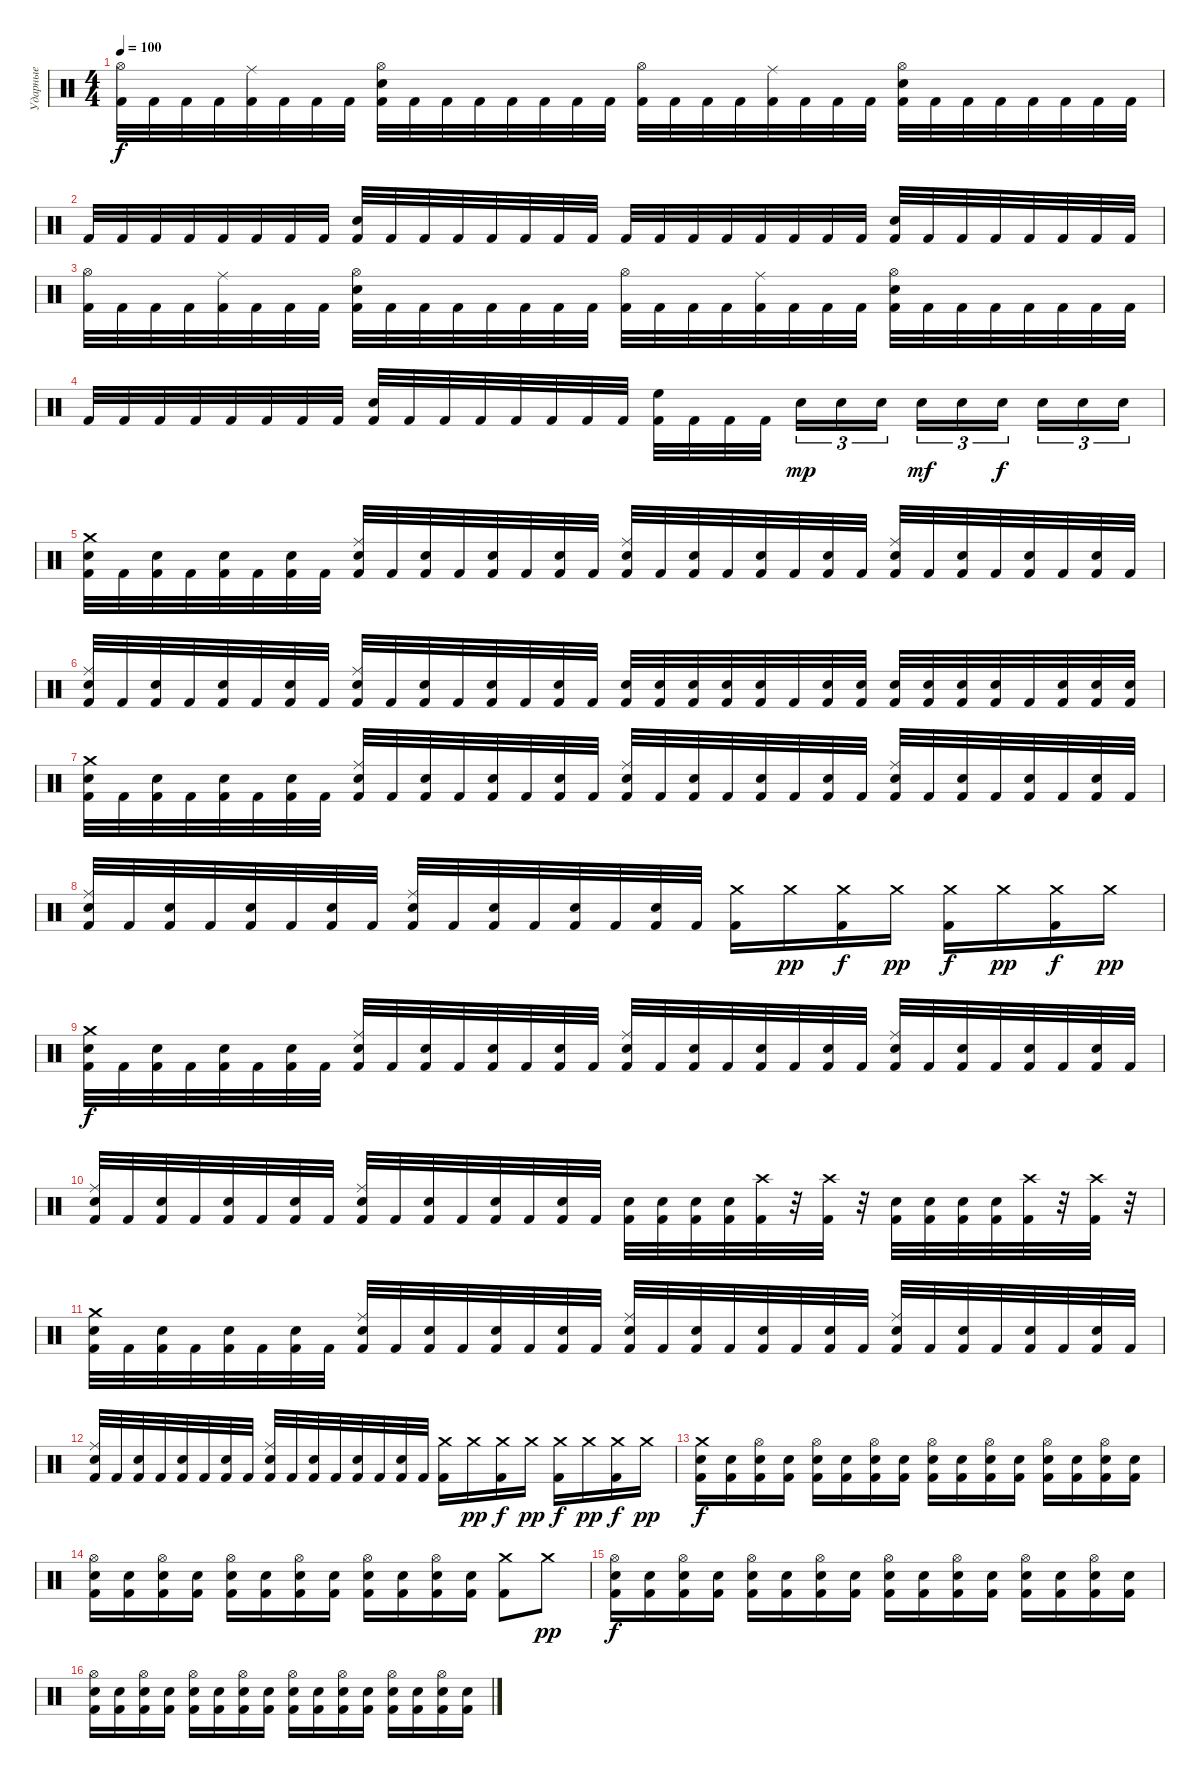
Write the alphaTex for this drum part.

\track ("Ударные" "Ударные") {instrument percussion}
\staff {score}
\articulation defaults
\ts (4 4)
\tempo 100
\clef neutral
\ks c
("Hi-Hat (open)" "Kick (hit) 2").32{dy f} "Kick (hit) 2".32 "Kick (hit) 2".32 "Kick (hit) 2".32 ("Ride (middle)" "Kick (hit) 2").32 "Kick (hit) 2".32 "Kick (hit) 2".32 "Kick (hit) 2".32 ("Hi-Hat (open)" "Electric Snare (hit)" "Kick (hit) 2").32 "Kick (hit) 2".32 "Kick (hit) 2".32 "Kick (hit) 2".32 "Kick (hit) 2".32 "Kick (hit) 2".32 "Kick (hit) 2".32 "Kick (hit) 2".32 ("Hi-Hat (open)" "Kick (hit) 2").32 "Kick (hit) 2".32 "Kick (hit) 2".32 "Kick (hit) 2".32 ("Ride (middle)" "Kick (hit) 2").32 "Kick (hit) 2".32 "Kick (hit) 2".32 "Kick (hit) 2".32 ("Hi-Hat (open)" "Electric Snare (hit)" "Kick (hit) 2").32 "Kick (hit) 2".32 "Kick (hit) 2".32 "Kick (hit) 2".32 "Kick (hit) 2".32 "Kick (hit) 2".32 "Kick (hit) 2".32 "Kick (hit) 2".32 |
"Kick (hit) 2".32 "Kick (hit) 2".32 "Kick (hit) 2".32 "Kick (hit) 2".32 "Kick (hit) 2".32 "Kick (hit) 2".32 "Kick (hit) 2".32 "Kick (hit) 2".32 ("Electric Snare (hit)" "Kick (hit) 2").32 "Kick (hit) 2".32 "Kick (hit) 2".32 "Kick (hit) 2".32 "Kick (hit) 2".32 "Kick (hit) 2".32 "Kick (hit) 2".32 "Kick (hit) 2".32 "Kick (hit) 2".32 "Kick (hit) 2".32 "Kick (hit) 2".32 "Kick (hit) 2".32 "Kick (hit) 2".32 "Kick (hit) 2".32 "Kick (hit) 2".32 "Kick (hit) 2".32 ("Electric Snare (hit)" "Kick (hit) 2").32 "Kick (hit) 2".32 "Kick (hit) 2".32 "Kick (hit) 2".32 "Kick (hit) 2".32 "Kick (hit) 2".32 "Kick (hit) 2".32 "Kick (hit) 2".32 |
("Hi-Hat (open)" "Kick (hit) 2").32 "Kick (hit) 2".32 "Kick (hit) 2".32 "Kick (hit) 2".32 ("Ride (middle)" "Kick (hit) 2").32 "Kick (hit) 2".32 "Kick (hit) 2".32 "Kick (hit) 2".32 ("Hi-Hat (open)" "Electric Snare (hit)" "Kick (hit) 2").32 "Kick (hit) 2".32 "Kick (hit) 2".32 "Kick (hit) 2".32 "Kick (hit) 2".32 "Kick (hit) 2".32 "Kick (hit) 2".32 "Kick (hit) 2".32 ("Hi-Hat (open)" "Kick (hit) 2").32 "Kick (hit) 2".32 "Kick (hit) 2".32 "Kick (hit) 2".32 ("Ride (middle)" "Kick (hit) 2").32 "Kick (hit) 2".32 "Kick (hit) 2".32 "Kick (hit) 2".32 ("Hi-Hat (open)" "Electric Snare (hit)" "Kick (hit) 2").32 "Kick (hit) 2".32 "Kick (hit) 2".32 "Kick (hit) 2".32 "Kick (hit) 2".32 "Kick (hit) 2".32 "Kick (hit) 2".32 "Kick (hit) 2".32 |
"Kick (hit) 2".32 "Kick (hit) 2".32 "Kick (hit) 2".32 "Kick (hit) 2".32 "Kick (hit) 2".32 "Kick (hit) 2".32 "Kick (hit) 2".32 "Kick (hit) 2".32 ("Electric Snare (hit)" "Kick (hit) 2").32 "Kick (hit) 2".32 "Kick (hit) 2".32 "Kick (hit) 2".32 "Kick (hit) 2".32 "Kick (hit) 2".32 "Kick (hit) 2".32 "Kick (hit) 2".32 ("High Floor Tom (hit)" "Kick (hit) 2").32 "Kick (hit) 2".32 "Kick (hit) 2".32 "Kick (hit) 2".32{beam splitsecondary} "Electric Snare (hit)".16{tu (3 2) dy mp} "Electric Snare (hit)".16{tu (3 2)} "Electric Snare (hit)".16{tu (3 2)} "Electric Snare (hit)".16{tu (3 2) dy mf} "Electric Snare (hit)".16{tu (3 2)} "Electric Snare (hit)".16{tu (3 2) dy f beam splitsecondary} "Electric Snare (hit)".16{tu (3 2)} "Electric Snare (hit)".16{tu (3 2)} "Electric Snare (hit)".16{tu (3 2)} |
("Crash medium (hit)" "Electric Snare (hit)" "Kick (hit) 2").32 "Kick (hit) 2".32 ("Electric Snare (hit)" "Kick (hit) 2").32 "Kick (hit) 2".32 ("Electric Snare (hit)" "Kick (hit) 2").32 "Kick (hit) 2".32 ("Electric Snare (hit)" "Kick (hit) 2").32 "Kick (hit) 2".32 ("Ride (middle)" "Electric Snare (hit)" "Kick (hit) 2").32 "Kick (hit) 2".32 ("Electric Snare (hit)" "Kick (hit) 2").32 "Kick (hit) 2".32 ("Electric Snare (hit)" "Kick (hit) 2").32 "Kick (hit) 2".32 ("Electric Snare (hit)" "Kick (hit) 2").32 "Kick (hit) 2".32 ("Ride (middle)" "Electric Snare (hit)" "Kick (hit) 2").32 "Kick (hit) 2".32 ("Electric Snare (hit)" "Kick (hit) 2").32 "Kick (hit) 2".32 ("Electric Snare (hit)" "Kick (hit) 2").32 "Kick (hit) 2".32 ("Electric Snare (hit)" "Kick (hit) 2").32 "Kick (hit) 2".32 ("Ride (middle)" "Electric Snare (hit)" "Kick (hit) 2").32 "Kick (hit) 2".32 ("Electric Snare (hit)" "Kick (hit) 2").32 "Kick (hit) 2".32 ("Electric Snare (hit)" "Kick (hit) 2").32 "Kick (hit) 2".32 ("Electric Snare (hit)" "Kick (hit) 2").32 "Kick (hit) 2".32 |
("Ride (middle)" "Electric Snare (hit)" "Kick (hit) 2").32 "Kick (hit) 2".32 ("Electric Snare (hit)" "Kick (hit) 2").32 "Kick (hit) 2".32 ("Electric Snare (hit)" "Kick (hit) 2").32 "Kick (hit) 2".32 ("Electric Snare (hit)" "Kick (hit) 2").32 "Kick (hit) 2".32 ("Ride (middle)" "Electric Snare (hit)" "Kick (hit) 2").32 "Kick (hit) 2".32 ("Electric Snare (hit)" "Kick (hit) 2").32 "Kick (hit) 2".32 ("Electric Snare (hit)" "Kick (hit) 2").32 "Kick (hit) 2".32 ("Electric Snare (hit)" "Kick (hit) 2").32 "Kick (hit) 2".32 ("Electric Snare (hit)" "Kick (hit) 2").32 ("Electric Snare (hit)" "Kick (hit) 2").32 ("Electric Snare (hit)" "Kick (hit) 2").32 ("Electric Snare (hit)" "Kick (hit) 2").32 ("Electric Snare (hit)" "Kick (hit) 2").32 "Kick (hit) 2".32 ("Electric Snare (hit)" "Kick (hit) 2").32 ("Electric Snare (hit)" "Kick (hit) 2").32 ("Electric Snare (hit)" "Kick (hit) 2").32 ("Electric Snare (hit)" "Kick (hit) 2").32 ("Electric Snare (hit)" "Kick (hit) 2").32 ("Electric Snare (hit)" "Kick (hit) 2").32 "Kick (hit) 2".32 ("Electric Snare (hit)" "Kick (hit) 2").32 ("Electric Snare (hit)" "Kick (hit) 2").32 ("Electric Snare (hit)" "Kick (hit) 2").32 |
("Crash medium (hit)" "Electric Snare (hit)" "Kick (hit) 2").32 "Kick (hit) 2".32 ("Electric Snare (hit)" "Kick (hit) 2").32 "Kick (hit) 2".32 ("Electric Snare (hit)" "Kick (hit) 2").32 "Kick (hit) 2".32 ("Electric Snare (hit)" "Kick (hit) 2").32 "Kick (hit) 2".32 ("Ride (middle)" "Electric Snare (hit)" "Kick (hit) 2").32 "Kick (hit) 2".32 ("Electric Snare (hit)" "Kick (hit) 2").32 "Kick (hit) 2".32 ("Electric Snare (hit)" "Kick (hit) 2").32 "Kick (hit) 2".32 ("Electric Snare (hit)" "Kick (hit) 2").32 "Kick (hit) 2".32 ("Ride (middle)" "Electric Snare (hit)" "Kick (hit) 2").32 "Kick (hit) 2".32 ("Electric Snare (hit)" "Kick (hit) 2").32 "Kick (hit) 2".32 ("Electric Snare (hit)" "Kick (hit) 2").32 "Kick (hit) 2".32 ("Electric Snare (hit)" "Kick (hit) 2").32 "Kick (hit) 2".32 ("Ride (middle)" "Electric Snare (hit)" "Kick (hit) 2").32 "Kick (hit) 2".32 ("Electric Snare (hit)" "Kick (hit) 2").32 "Kick (hit) 2".32 ("Electric Snare (hit)" "Kick (hit) 2").32 "Kick (hit) 2".32 ("Electric Snare (hit)" "Kick (hit) 2").32 "Kick (hit) 2".32 |
("Ride (middle)" "Electric Snare (hit)" "Kick (hit) 2").32 "Kick (hit) 2".32 ("Electric Snare (hit)" "Kick (hit) 2").32 "Kick (hit) 2".32 ("Electric Snare (hit)" "Kick (hit) 2").32 "Kick (hit) 2".32 ("Electric Snare (hit)" "Kick (hit) 2").32 "Kick (hit) 2".32 ("Ride (middle)" "Electric Snare (hit)" "Kick (hit) 2").32 "Kick (hit) 2".32 ("Electric Snare (hit)" "Kick (hit) 2").32 "Kick (hit) 2".32 ("Electric Snare (hit)" "Kick (hit) 2").32 "Kick (hit) 2".32 ("Electric Snare (hit)" "Kick (hit) 2").32 "Kick (hit) 2".32 ("Crash medium (hit)" "Kick (hit) 2").16 "Crash medium (hit)".16{dy pp} ("Crash medium (hit)" "Kick (hit) 2").16{dy f} "Crash medium (hit)".16{dy pp} ("Crash medium (hit)" "Kick (hit) 2").16{dy f} "Crash medium (hit)".16{dy pp} ("Crash medium (hit)" "Kick (hit) 2").16{dy f} "Crash medium (hit)".16{dy pp} |
("Crash medium (hit)" "Electric Snare (hit)" "Kick (hit) 2").32{dy f} "Kick (hit) 2".32 ("Electric Snare (hit)" "Kick (hit) 2").32 "Kick (hit) 2".32 ("Electric Snare (hit)" "Kick (hit) 2").32 "Kick (hit) 2".32 ("Electric Snare (hit)" "Kick (hit) 2").32 "Kick (hit) 2".32 ("Ride (middle)" "Electric Snare (hit)" "Kick (hit) 2").32 "Kick (hit) 2".32 ("Electric Snare (hit)" "Kick (hit) 2").32 "Kick (hit) 2".32 ("Electric Snare (hit)" "Kick (hit) 2").32 "Kick (hit) 2".32 ("Electric Snare (hit)" "Kick (hit) 2").32 "Kick (hit) 2".32 ("Ride (middle)" "Electric Snare (hit)" "Kick (hit) 2").32 "Kick (hit) 2".32 ("Electric Snare (hit)" "Kick (hit) 2").32 "Kick (hit) 2".32 ("Electric Snare (hit)" "Kick (hit) 2").32 "Kick (hit) 2".32 ("Electric Snare (hit)" "Kick (hit) 2").32 "Kick (hit) 2".32 ("Ride (middle)" "Electric Snare (hit)" "Kick (hit) 2").32 "Kick (hit) 2".32 ("Electric Snare (hit)" "Kick (hit) 2").32 "Kick (hit) 2".32 ("Electric Snare (hit)" "Kick (hit) 2").32 "Kick (hit) 2".32 ("Electric Snare (hit)" "Kick (hit) 2").32 "Kick (hit) 2".32 |
("Ride (middle)" "Electric Snare (hit)" "Kick (hit) 2").32 "Kick (hit) 2".32 ("Electric Snare (hit)" "Kick (hit) 2").32 "Kick (hit) 2".32 ("Electric Snare (hit)" "Kick (hit) 2").32 "Kick (hit) 2".32 ("Electric Snare (hit)" "Kick (hit) 2").32 "Kick (hit) 2".32 ("Ride (middle)" "Electric Snare (hit)" "Kick (hit) 2").32 "Kick (hit) 2".32 ("Electric Snare (hit)" "Kick (hit) 2").32 "Kick (hit) 2".32 ("Electric Snare (hit)" "Kick (hit) 2").32 "Kick (hit) 2".32 ("Electric Snare (hit)" "Kick (hit) 2").32 "Kick (hit) 2".32 ("Electric Snare (hit)" "Kick (hit) 2").32 ("Electric Snare (hit)" "Kick (hit) 2").32 ("Electric Snare (hit)" "Kick (hit) 2").32 ("Electric Snare (hit)" "Kick (hit) 2").32 ("Crash high (hit)" "Kick (hit) 2").32 r.32 ("Crash high (hit)" "Kick (hit) 2").32 r.32 ("Electric Snare (hit)" "Kick (hit) 2").32 ("Electric Snare (hit)" "Kick (hit) 2").32 ("Electric Snare (hit)" "Kick (hit) 2").32 ("Electric Snare (hit)" "Kick (hit) 2").32 ("Crash high (hit)" "Kick (hit) 2").32 r.32 ("Crash high (hit)" "Kick (hit) 2").32 r.32 |
("Crash medium (hit)" "Electric Snare (hit)" "Kick (hit) 2").32 "Kick (hit) 2".32 ("Electric Snare (hit)" "Kick (hit) 2").32 "Kick (hit) 2".32 ("Electric Snare (hit)" "Kick (hit) 2").32 "Kick (hit) 2".32 ("Electric Snare (hit)" "Kick (hit) 2").32 "Kick (hit) 2".32 ("Ride (middle)" "Electric Snare (hit)" "Kick (hit) 2").32 "Kick (hit) 2".32 ("Electric Snare (hit)" "Kick (hit) 2").32 "Kick (hit) 2".32 ("Electric Snare (hit)" "Kick (hit) 2").32 "Kick (hit) 2".32 ("Electric Snare (hit)" "Kick (hit) 2").32 "Kick (hit) 2".32 ("Ride (middle)" "Electric Snare (hit)" "Kick (hit) 2").32 "Kick (hit) 2".32 ("Electric Snare (hit)" "Kick (hit) 2").32 "Kick (hit) 2".32 ("Electric Snare (hit)" "Kick (hit) 2").32 "Kick (hit) 2".32 ("Electric Snare (hit)" "Kick (hit) 2").32 "Kick (hit) 2".32 ("Ride (middle)" "Electric Snare (hit)" "Kick (hit) 2").32 "Kick (hit) 2".32 ("Electric Snare (hit)" "Kick (hit) 2").32 "Kick (hit) 2".32 ("Electric Snare (hit)" "Kick (hit) 2").32 "Kick (hit) 2".32 ("Electric Snare (hit)" "Kick (hit) 2").32 "Kick (hit) 2".32 |
("Ride (middle)" "Electric Snare (hit)" "Kick (hit) 2").32 "Kick (hit) 2".32 ("Electric Snare (hit)" "Kick (hit) 2").32 "Kick (hit) 2".32 ("Electric Snare (hit)" "Kick (hit) 2").32 "Kick (hit) 2".32 ("Electric Snare (hit)" "Kick (hit) 2").32 "Kick (hit) 2".32 ("Ride (middle)" "Electric Snare (hit)" "Kick (hit) 2").32 "Kick (hit) 2".32 ("Electric Snare (hit)" "Kick (hit) 2").32 "Kick (hit) 2".32 ("Electric Snare (hit)" "Kick (hit) 2").32 "Kick (hit) 2".32 ("Electric Snare (hit)" "Kick (hit) 2").32 "Kick (hit) 2".32 ("Crash medium (hit)" "Kick (hit) 2").16 "Crash medium (hit)".16{dy pp} ("Crash medium (hit)" "Kick (hit) 2").16{dy f} "Crash medium (hit)".16{dy pp} ("Crash medium (hit)" "Kick (hit) 2").16{dy f} "Crash medium (hit)".16{dy pp} ("Crash medium (hit)" "Kick (hit) 2").16{dy f} "Crash medium (hit)".16{dy pp} |
("Crash medium (hit)" "Electric Snare (hit)" "Kick (hit) 2").16{dy f} ("Electric Snare (hit)" "Kick (hit) 2").16 ("Hi-Hat (open)" "Electric Snare (hit)" "Kick (hit) 2").16 ("Electric Snare (hit)" "Kick (hit) 2").16 ("Hi-Hat (open)" "Electric Snare (hit)" "Kick (hit) 2").16 ("Electric Snare (hit)" "Kick (hit) 2").16 ("Hi-Hat (open)" "Electric Snare (hit)" "Kick (hit) 2").16 ("Electric Snare (hit)" "Kick (hit) 2").16 ("Hi-Hat (open)" "Electric Snare (hit)" "Kick (hit) 2").16 ("Electric Snare (hit)" "Kick (hit) 2").16 ("Hi-Hat (open)" "Electric Snare (hit)" "Kick (hit) 2").16 ("Electric Snare (hit)" "Kick (hit) 2").16 ("Hi-Hat (open)" "Electric Snare (hit)" "Kick (hit) 2").16 ("Electric Snare (hit)" "Kick (hit) 2").16 ("Hi-Hat (open)" "Electric Snare (hit)" "Kick (hit) 2").16 ("Electric Snare (hit)" "Kick (hit) 2").16 |
("Hi-Hat (open)" "Electric Snare (hit)" "Kick (hit) 2").16 ("Electric Snare (hit)" "Kick (hit) 2").16 ("Hi-Hat (open)" "Electric Snare (hit)" "Kick (hit) 2").16 ("Electric Snare (hit)" "Kick (hit) 2").16 ("Hi-Hat (open)" "Electric Snare (hit)" "Kick (hit) 2").16 ("Electric Snare (hit)" "Kick (hit) 2").16 ("Hi-Hat (open)" "Electric Snare (hit)" "Kick (hit) 2").16 ("Electric Snare (hit)" "Kick (hit) 2").16 ("Hi-Hat (open)" "Electric Snare (hit)" "Kick (hit) 2").16 ("Electric Snare (hit)" "Kick (hit) 2").16 ("Hi-Hat (open)" "Electric Snare (hit)" "Kick (hit) 2").16 ("Electric Snare (hit)" "Kick (hit) 2").16 ("Crash medium (hit)" "Kick (hit) 2").8 "Crash medium (hit)".8{dy pp} |
("Hi-Hat (open)" "Electric Snare (hit)" "Kick (hit) 2").16{dy f} ("Electric Snare (hit)" "Kick (hit) 2").16 ("Hi-Hat (open)" "Electric Snare (hit)" "Kick (hit) 2").16 ("Electric Snare (hit)" "Kick (hit) 2").16 ("Hi-Hat (open)" "Electric Snare (hit)" "Kick (hit) 2").16 ("Electric Snare (hit)" "Kick (hit) 2").16 ("Hi-Hat (open)" "Electric Snare (hit)" "Kick (hit) 2").16 ("Electric Snare (hit)" "Kick (hit) 2").16 ("Hi-Hat (open)" "Electric Snare (hit)" "Kick (hit) 2").16 ("Electric Snare (hit)" "Kick (hit) 2").16 ("Hi-Hat (open)" "Electric Snare (hit)" "Kick (hit) 2").16 ("Electric Snare (hit)" "Kick (hit) 2").16 ("Hi-Hat (open)" "Electric Snare (hit)" "Kick (hit) 2").16 ("Electric Snare (hit)" "Kick (hit) 2").16 ("Hi-Hat (open)" "Electric Snare (hit)" "Kick (hit) 2").16 ("Electric Snare (hit)" "Kick (hit) 2").16 |
("Hi-Hat (open)" "Electric Snare (hit)" "Kick (hit) 2").16 ("Electric Snare (hit)" "Kick (hit) 2").16 ("Hi-Hat (open)" "Electric Snare (hit)" "Kick (hit) 2").16 ("Electric Snare (hit)" "Kick (hit) 2").16 ("Hi-Hat (open)" "Electric Snare (hit)" "Kick (hit) 2").16 ("Electric Snare (hit)" "Kick (hit) 2").16 ("Hi-Hat (open)" "Electric Snare (hit)" "Kick (hit) 2").16 ("Electric Snare (hit)" "Kick (hit) 2").16 ("Hi-Hat (open)" "Electric Snare (hit)" "Kick (hit) 2").16 ("Electric Snare (hit)" "Kick (hit) 2").16 ("Hi-Hat (open)" "Electric Snare (hit)" "Kick (hit) 2").16 ("Electric Snare (hit)" "Kick (hit) 2").16 ("Hi-Hat (open)" "Electric Snare (hit)" "Kick (hit) 2").16 ("Electric Snare (hit)" "Kick (hit) 2").16 ("Hi-Hat (open)" "Electric Snare (hit)" "Kick (hit) 2").16 ("Electric Snare (hit)" "Kick (hit) 2").16
